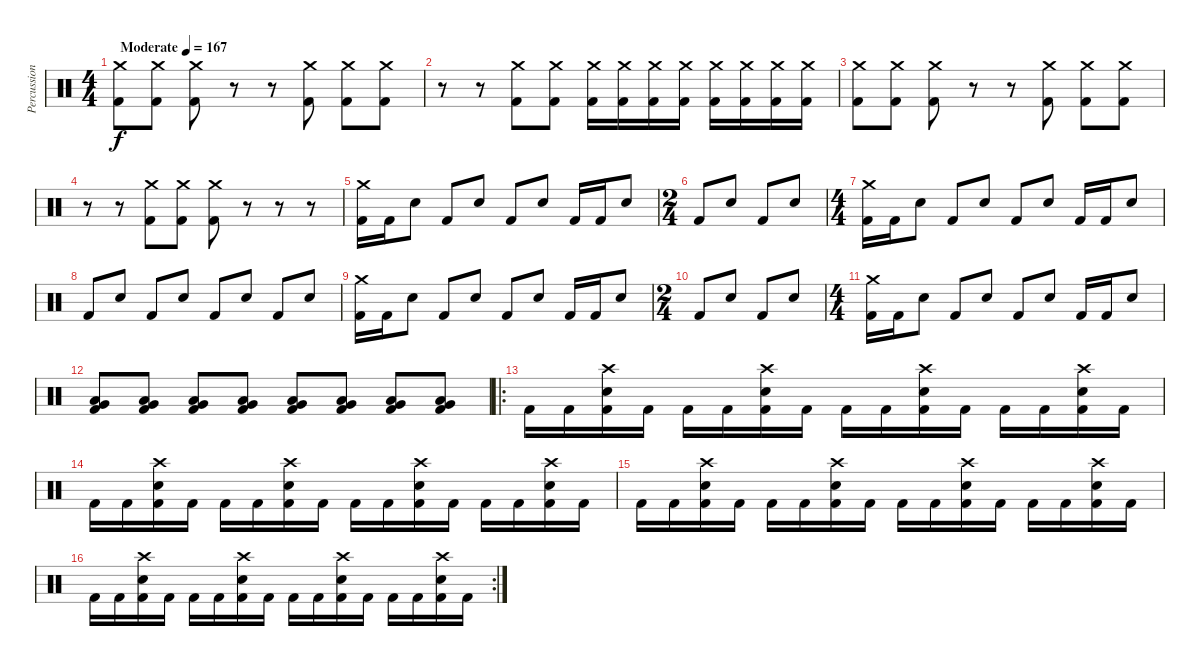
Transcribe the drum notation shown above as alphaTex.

\track ("Percussion" "Percussion") {instrument percussion}
\staff {score}
\articulation defaults
\ts (4 4)
\tempo (167 "Moderate")
\clef neutral
\ks c
("Crash medium (hit)" "Kick (hit) 2").8{dy f} ("Crash medium (hit)" "Kick (hit) 2").8 ("Crash medium (hit)" "Kick (hit) 2").8 r.8 r.8 ("Crash medium (hit)" "Kick (hit) 2").8 ("Crash medium (hit)" "Kick (hit) 2").8 ("Crash medium (hit)" "Kick (hit) 2").8 |
r.8 r.8 ("Crash medium (hit)" "Kick (hit) 2").8 ("Crash medium (hit)" "Kick (hit) 2").8 ("Crash medium (hit)" "Kick (hit) 2").16 ("Crash medium (hit)" "Kick (hit) 2").16 ("Crash medium (hit)" "Kick (hit) 2").16 ("Crash medium (hit)" "Kick (hit) 2").16 ("Crash medium (hit)" "Kick (hit) 2").16 ("Crash medium (hit)" "Kick (hit) 2").16 ("Crash medium (hit)" "Kick (hit) 2").16 ("Crash medium (hit)" "Kick (hit) 2").16 |
("Crash medium (hit)" "Kick (hit) 2").8 ("Crash medium (hit)" "Kick (hit) 2").8 ("Crash medium (hit)" "Kick (hit) 2").8 r.8 r.8 ("Crash medium (hit)" "Kick (hit) 2").8 ("Crash medium (hit)" "Kick (hit) 2").8 ("Crash medium (hit)" "Kick (hit) 2").8 |
r.8 r.8 ("Crash medium (hit)" "Kick (hit) 2").8 ("Crash medium (hit)" "Kick (hit) 2").8 ("Crash medium (hit)" "Kick (hit) 2").8 r.8 r.8 r.8 |
("Crash medium (hit)" "Kick (hit) 2").16 "Kick (hit) 2".16 "Electric Snare (hit)".8 "Kick (hit) 2".8 "Electric Snare (hit)".8 "Kick (hit) 2".8 "Electric Snare (hit)".8 "Kick (hit) 2".16 "Kick (hit) 2".16 "Electric Snare (hit)".8 |
\ts (2 4)
"Kick (hit) 2".8 "Electric Snare (hit)".8 "Kick (hit) 2".8 "Electric Snare (hit)".8 |
\ts (4 4)
("Crash medium (hit)" "Kick (hit) 2").16 "Kick (hit) 2".16 "Electric Snare (hit)".8 "Kick (hit) 2".8 "Electric Snare (hit)".8 "Kick (hit) 2".8 "Electric Snare (hit)".8 "Kick (hit) 2".16 "Kick (hit) 2".16 "Electric Snare (hit)".8 |
"Kick (hit) 2".8 "Electric Snare (hit)".8 "Kick (hit) 2".8 "Electric Snare (hit)".8 "Kick (hit) 2".8 "Electric Snare (hit)".8 "Kick (hit) 2".8 "Electric Snare (hit)".8 |
("Crash medium (hit)" "Kick (hit) 2").16 "Kick (hit) 2".16 "Electric Snare (hit)".8 "Kick (hit) 2".8 "Electric Snare (hit)".8 "Kick (hit) 2".8 "Electric Snare (hit)".8 "Kick (hit) 2".16 "Kick (hit) 2".16 "Electric Snare (hit)".8 |
\ts (2 4)
"Kick (hit) 2".8 "Electric Snare (hit)".8 "Kick (hit) 2".8 "Electric Snare (hit)".8 |
\ts (4 4)
("Crash medium (hit)" "Kick (hit) 2").16 "Kick (hit) 2".16 "Electric Snare (hit)".8 "Kick (hit) 2".8 "Electric Snare (hit)".8 "Kick (hit) 2".8 "Electric Snare (hit)".8 "Kick (hit) 2".16 "Kick (hit) 2".16 "Electric Snare (hit)".8 |
("Very Low Tom (hit)" "Low Tom (hit)" "Kick (hit) 2").8 ("Very Low Tom (hit)" "Low Tom (hit)" "Kick (hit) 2").8 ("Very Low Tom (hit)" "Low Tom (hit)" "Kick (hit) 2").8 ("Very Low Tom (hit)" "Low Tom (hit)" "Kick (hit) 2").8 ("Very Low Tom (hit)" "Low Tom (hit)" "Kick (hit) 2").8 ("Very Low Tom (hit)" "Low Tom (hit)" "Kick (hit) 2").8 ("Very Low Tom (hit)" "Low Tom (hit)" "Kick (hit) 2").8 ("Very Low Tom (hit)" "Low Tom (hit)" "Kick (hit) 2").8 |
\ro "Kick (hit) 2".16 "Kick (hit) 2".16
("Crash high (hit)" "Electric Snare (hit)" "Kick (hit) 2").16 "Kick (hit) 2".16 "Kick (hit) 2".16 "Kick (hit) 2".16 ("Crash high (hit)" "Electric Snare (hit)" "Kick (hit) 2").16 "Kick (hit) 2".16 "Kick (hit) 2".16 "Kick (hit) 2".16 ("Crash high (hit)" "Electric Snare (hit)" "Kick (hit) 2").16 "Kick (hit) 2".16 "Kick (hit) 2".16 "Kick (hit) 2".16 ("Crash high (hit)" "Electric Snare (hit)" "Kick (hit) 2").16 "Kick (hit) 2".16 |
"Kick (hit) 2".16 "Kick (hit) 2".16 ("Crash high (hit)" "Electric Snare (hit)" "Kick (hit) 2").16 "Kick (hit) 2".16 "Kick (hit) 2".16 "Kick (hit) 2".16 ("Crash high (hit)" "Electric Snare (hit)" "Kick (hit) 2").16 "Kick (hit) 2".16 "Kick (hit) 2".16 "Kick (hit) 2".16 ("Crash high (hit)" "Electric Snare (hit)" "Kick (hit) 2").16 "Kick (hit) 2".16 "Kick (hit) 2".16 "Kick (hit) 2".16 ("Crash high (hit)" "Electric Snare (hit)" "Kick (hit) 2").16 "Kick (hit) 2".16 |
"Kick (hit) 2".16 "Kick (hit) 2".16 ("Crash high (hit)" "Electric Snare (hit)" "Kick (hit) 2").16 "Kick (hit) 2".16 "Kick (hit) 2".16 "Kick (hit) 2".16 ("Crash high (hit)" "Electric Snare (hit)" "Kick (hit) 2").16 "Kick (hit) 2".16 "Kick (hit) 2".16 "Kick (hit) 2".16 ("Crash high (hit)" "Electric Snare (hit)" "Kick (hit) 2").16 "Kick (hit) 2".16 "Kick (hit) 2".16 "Kick (hit) 2".16 ("Crash high (hit)" "Electric Snare (hit)" "Kick (hit) 2").16 "Kick (hit) 2".16 |
\rc 2 "Kick (hit) 2".16 "Kick (hit) 2".16
("Crash high (hit)" "Electric Snare (hit)" "Kick (hit) 2").16 "Kick (hit) 2".16 "Kick (hit) 2".16 "Kick (hit) 2".16 ("Crash high (hit)" "Electric Snare (hit)" "Kick (hit) 2").16 "Kick (hit) 2".16 "Kick (hit) 2".16 "Kick (hit) 2".16 ("Crash high (hit)" "Electric Snare (hit)" "Kick (hit) 2").16 "Kick (hit) 2".16 "Kick (hit) 2".16 "Kick (hit) 2".16 ("Crash high (hit)" "Electric Snare (hit)" "Kick (hit) 2").16 "Kick (hit) 2".16
